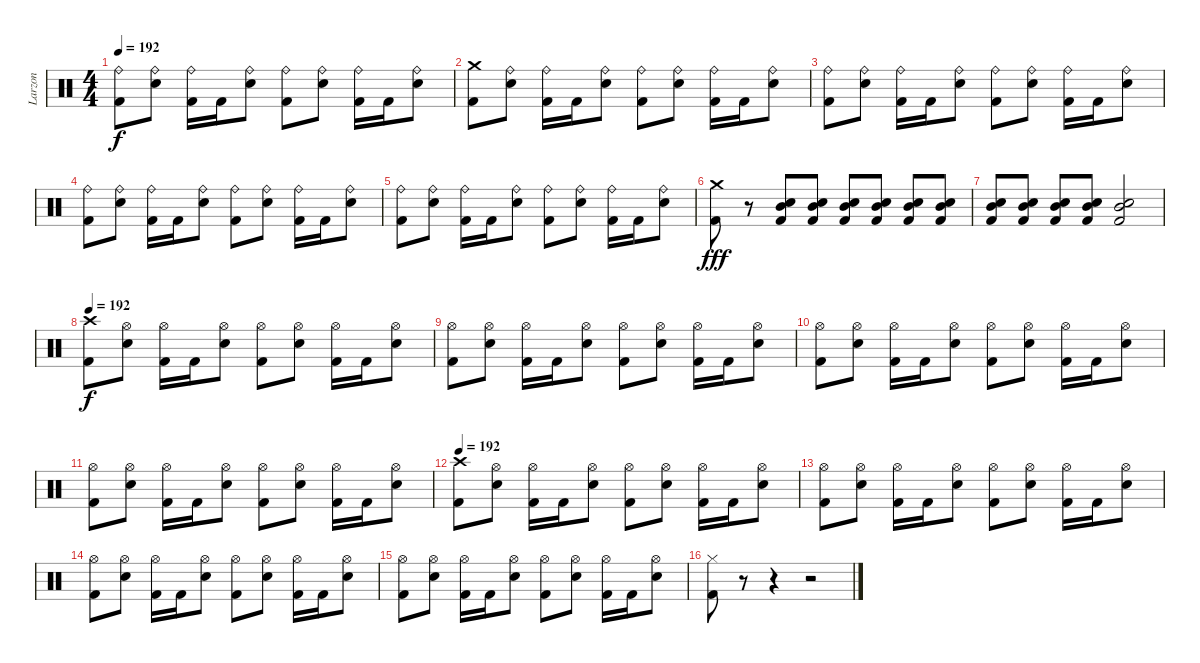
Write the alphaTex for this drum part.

\track ("Larzon" "Larzon") {instrument percussion}
\staff {score}
\articulation defaults
\ts (4 4)
\tempo 192
\clef neutral
\ks c
("Ride (bell)" "Kick (hit) 2").8{dy f} ("Ride (bell)" "Electric Snare (hit)").8 ("Ride (bell)" "Kick (hit) 2").16 "Kick (hit) 2".16 ("Ride (bell)" "Electric Snare (hit)").8 ("Ride (bell)" "Kick (hit) 2").8 ("Ride (bell)" "Electric Snare (hit)").8 ("Ride (bell)" "Kick (hit) 2").16 "Kick (hit) 2".16 ("Ride (bell)" "Electric Snare (hit)").8 |
("Crash medium (hit)" "Kick (hit) 2").8 ("Ride (bell)" "Electric Snare (hit)").8 ("Ride (bell)" "Kick (hit) 2").16 "Kick (hit) 2".16 ("Ride (bell)" "Electric Snare (hit)").8 ("Ride (bell)" "Kick (hit) 2").8 ("Ride (bell)" "Electric Snare (hit)").8 ("Ride (bell)" "Kick (hit) 2").16 "Kick (hit) 2".16 ("Ride (bell)" "Electric Snare (hit)").8 |
("Ride (bell)" "Kick (hit) 2").8 ("Ride (bell)" "Electric Snare (hit)").8 ("Ride (bell)" "Kick (hit) 2").16 "Kick (hit) 2".16 ("Ride (bell)" "Electric Snare (hit)").8 ("Ride (bell)" "Kick (hit) 2").8 ("Ride (bell)" "Electric Snare (hit)").8 ("Ride (bell)" "Kick (hit) 2").16 "Kick (hit) 2".16 ("Ride (bell)" "Electric Snare (hit)").8 |
("Ride (bell)" "Kick (hit) 2").8 ("Ride (bell)" "Electric Snare (hit)").8 ("Ride (bell)" "Kick (hit) 2").16 "Kick (hit) 2".16 ("Ride (bell)" "Electric Snare (hit)").8 ("Ride (bell)" "Kick (hit) 2").8 ("Ride (bell)" "Electric Snare (hit)").8 ("Ride (bell)" "Kick (hit) 2").16 "Kick (hit) 2".16 ("Ride (bell)" "Electric Snare (hit)").8 |
("Ride (bell)" "Kick (hit) 2").8 ("Ride (bell)" "Electric Snare (hit)").8 ("Ride (bell)" "Kick (hit) 2").16 "Kick (hit) 2".16 ("Ride (bell)" "Electric Snare (hit)").8 ("Ride (bell)" "Kick (hit) 2").8 ("Ride (bell)" "Electric Snare (hit)").8 ("Ride (bell)" "Kick (hit) 2").16 "Kick (hit) 2".16 ("Ride (bell)" "Electric Snare (hit)").8 |
("Crash medium (hit)" "Kick (hit) 2").8{dy fff} r.8 ("Electric Snare (hit)" "Mid Tom (hit)" "Kick (hit) 2").8 ("Electric Snare (hit)" "Mid Tom (hit)" "Kick (hit) 2").8 ("Electric Snare (hit)" "Mid Tom (hit)" "Kick (hit) 2").8 ("Electric Snare (hit)" "Mid Tom (hit)" "Kick (hit) 2").8 ("Electric Snare (hit)" "Mid Tom (hit)" "Kick (hit) 2").8 ("Electric Snare (hit)" "Mid Tom (hit)" "Kick (hit) 2").8 |
("Electric Snare (hit)" "Mid Tom (hit)" "Kick (hit) 2").8 ("Electric Snare (hit)" "Mid Tom (hit)" "Kick (hit) 2").8 ("Electric Snare (hit)" "Mid Tom (hit)" "Kick (hit) 2").8 ("Electric Snare (hit)" "Mid Tom (hit)" "Kick (hit) 2").8 ("Electric Snare (hit)" "Mid Tom (hit)" "Kick (hit) 2").2 |
\tempo 192
("Crash high (hit)" "Kick (hit) 2").8{dy f} ("Hi-Hat (open)" "Electric Snare (hit)").8 ("Hi-Hat (open)" "Kick (hit) 2").16 "Kick (hit) 2".16 ("Hi-Hat (open)" "Electric Snare (hit)").8 ("Hi-Hat (open)" "Kick (hit) 2").8 ("Hi-Hat (open)" "Electric Snare (hit)").8 ("Hi-Hat (open)" "Kick (hit) 2").16 "Kick (hit) 2".16 ("Hi-Hat (open)" "Electric Snare (hit)").8 |
("Hi-Hat (open)" "Kick (hit) 2").8 ("Hi-Hat (open)" "Electric Snare (hit)").8 ("Hi-Hat (open)" "Kick (hit) 2").16 "Kick (hit) 2".16 ("Hi-Hat (open)" "Electric Snare (hit)").8 ("Hi-Hat (open)" "Kick (hit) 2").8 ("Hi-Hat (open)" "Electric Snare (hit)").8 ("Hi-Hat (open)" "Kick (hit) 2").16 "Kick (hit) 2".16 ("Hi-Hat (open)" "Electric Snare (hit)").8 |
("Hi-Hat (open)" "Kick (hit) 2").8 ("Hi-Hat (open)" "Electric Snare (hit)").8 ("Hi-Hat (open)" "Kick (hit) 2").16 "Kick (hit) 2".16 ("Hi-Hat (open)" "Electric Snare (hit)").8 ("Hi-Hat (open)" "Kick (hit) 2").8 ("Hi-Hat (open)" "Electric Snare (hit)").8 ("Hi-Hat (open)" "Kick (hit) 2").16 "Kick (hit) 2".16 ("Hi-Hat (open)" "Electric Snare (hit)").8 |
("Hi-Hat (open)" "Kick (hit) 2").8 ("Hi-Hat (open)" "Electric Snare (hit)").8 ("Hi-Hat (open)" "Kick (hit) 2").16 "Kick (hit) 2".16 ("Hi-Hat (open)" "Electric Snare (hit)").8 ("Hi-Hat (open)" "Kick (hit) 2").8 ("Hi-Hat (open)" "Electric Snare (hit)").8 ("Hi-Hat (open)" "Kick (hit) 2").16 "Kick (hit) 2".16 ("Hi-Hat (open)" "Electric Snare (hit)").8 |
\tempo 192
("Crash high (hit)" "Kick (hit) 2").8 ("Hi-Hat (open)" "Electric Snare (hit)").8 ("Hi-Hat (open)" "Kick (hit) 2").16 "Kick (hit) 2".16 ("Hi-Hat (open)" "Electric Snare (hit)").8 ("Hi-Hat (open)" "Kick (hit) 2").8 ("Hi-Hat (open)" "Electric Snare (hit)").8 ("Hi-Hat (open)" "Kick (hit) 2").16 "Kick (hit) 2".16 ("Hi-Hat (open)" "Electric Snare (hit)").8 |
("Hi-Hat (open)" "Kick (hit) 2").8 ("Hi-Hat (open)" "Electric Snare (hit)").8 ("Hi-Hat (open)" "Kick (hit) 2").16 "Kick (hit) 2".16 ("Hi-Hat (open)" "Electric Snare (hit)").8 ("Hi-Hat (open)" "Kick (hit) 2").8 ("Hi-Hat (open)" "Electric Snare (hit)").8 ("Hi-Hat (open)" "Kick (hit) 2").16 "Kick (hit) 2".16 ("Hi-Hat (open)" "Electric Snare (hit)").8 |
("Hi-Hat (open)" "Kick (hit) 2").8 ("Hi-Hat (open)" "Electric Snare (hit)").8 ("Hi-Hat (open)" "Kick (hit) 2").16 "Kick (hit) 2".16 ("Hi-Hat (open)" "Electric Snare (hit)").8 ("Hi-Hat (open)" "Kick (hit) 2").8 ("Hi-Hat (open)" "Electric Snare (hit)").8 ("Hi-Hat (open)" "Kick (hit) 2").16 "Kick (hit) 2".16 ("Hi-Hat (open)" "Electric Snare (hit)").8 |
("Hi-Hat (open)" "Kick (hit) 2").8 ("Hi-Hat (open)" "Electric Snare (hit)").8 ("Hi-Hat (open)" "Kick (hit) 2").16 "Kick (hit) 2".16 ("Hi-Hat (open)" "Electric Snare (hit)").8 ("Hi-Hat (open)" "Kick (hit) 2").8 ("Hi-Hat (open)" "Electric Snare (hit)").8 ("Hi-Hat (open)" "Kick (hit) 2").16 "Kick (hit) 2".16 ("Hi-Hat (open)" "Electric Snare (hit)").8 |
("Hi-Hat (closed)" "Kick (hit) 2").8 r.8 r.4 r.2
